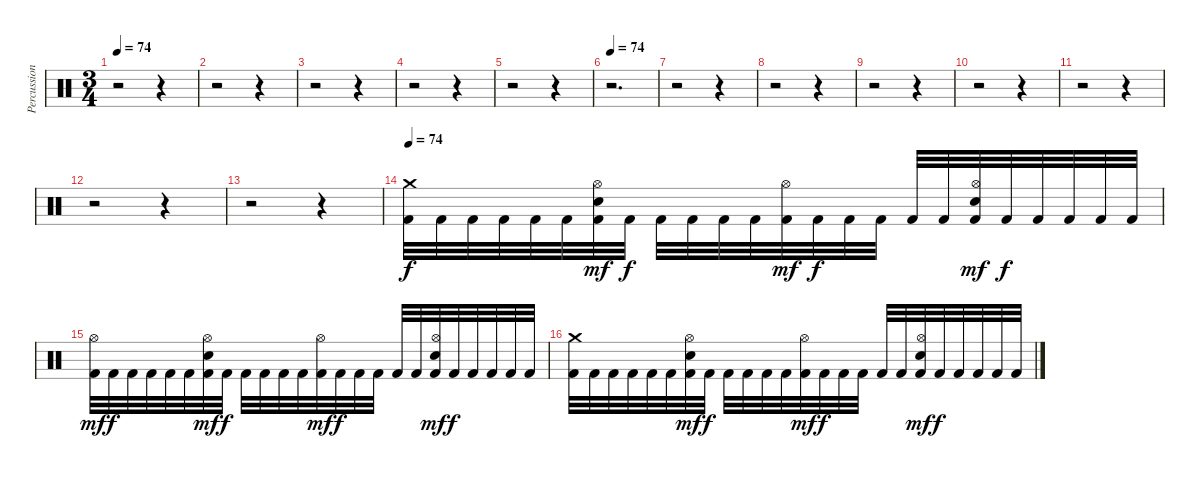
\track ("Percussion" "Percussion") {instrument percussion}
\staff {score}
\articulation defaults
\ts (3 4)
\tempo 74
\clef neutral
\ks c
r.2{dy mf} r.4 |
r.2 r.4 |
r.2 r.4 |
r.2 r.4 |
r.2 r.4 |
\tempo 74
r.2{d} |
r.2 r.4 |
r.2 r.4 |
r.2 r.4 |
r.2 r.4 |
r.2 r.4 |
r.2 r.4 |
r.2 r.4 |
\tempo 74
("Crash medium (hit)" "Kick (hit) 2").32{dy f} "Kick (hit) 2".32 "Kick (hit) 2".32 "Kick (hit) 2".32 "Kick (hit) 2".32 "Kick (hit) 2".32 ("Hi-Hat (open)" "Electric Snare (hit)" "Kick (hit) 2").32{dy mf} "Kick (hit) 2".32{dy f} "Kick (hit) 2".32 "Kick (hit) 2".32 "Kick (hit) 2".32 "Kick (hit) 2".32 ("Hi-Hat (open)" "Kick (hit) 2").32{dy mf} "Kick (hit) 2".32{dy f} "Kick (hit) 2".32 "Kick (hit) 2".32 "Kick (hit) 2".32 "Kick (hit) 2".32 ("Hi-Hat (open)" "Electric Snare (hit)" "Kick (hit) 2").32{dy mf} "Kick (hit) 2".32{dy f} "Kick (hit) 2".32 "Kick (hit) 2".32 "Kick (hit) 2".32 "Kick (hit) 2".32 |
("Hi-Hat (open)" "Kick (hit) 2").32{dy mf} "Kick (hit) 2".32{dy f} "Kick (hit) 2".32 "Kick (hit) 2".32 "Kick (hit) 2".32 "Kick (hit) 2".32 ("Hi-Hat (open)" "Electric Snare (hit)" "Kick (hit) 2").32{dy mf} "Kick (hit) 2".32{dy f} "Kick (hit) 2".32 "Kick (hit) 2".32 "Kick (hit) 2".32 "Kick (hit) 2".32 ("Hi-Hat (open)" "Kick (hit) 2").32{dy mf} "Kick (hit) 2".32{dy f} "Kick (hit) 2".32 "Kick (hit) 2".32 "Kick (hit) 2".32 "Kick (hit) 2".32 ("Hi-Hat (open)" "Electric Snare (hit)" "Kick (hit) 2").32{dy mf} "Kick (hit) 2".32{dy f} "Kick (hit) 2".32 "Kick (hit) 2".32 "Kick (hit) 2".32 "Kick (hit) 2".32 |
("Crash medium (hit)" "Kick (hit) 2").32 "Kick (hit) 2".32 "Kick (hit) 2".32 "Kick (hit) 2".32 "Kick (hit) 2".32 "Kick (hit) 2".32 ("Hi-Hat (open)" "Electric Snare (hit)" "Kick (hit) 2").32{dy mf} "Kick (hit) 2".32{dy f} "Kick (hit) 2".32 "Kick (hit) 2".32 "Kick (hit) 2".32 "Kick (hit) 2".32 ("Hi-Hat (open)" "Kick (hit) 2").32{dy mf} "Kick (hit) 2".32{dy f} "Kick (hit) 2".32 "Kick (hit) 2".32 "Kick (hit) 2".32 "Kick (hit) 2".32 ("Hi-Hat (open)" "Electric Snare (hit)" "Kick (hit) 2").32{dy mf} "Kick (hit) 2".32{dy f} "Kick (hit) 2".32 "Kick (hit) 2".32 "Kick (hit) 2".32 "Kick (hit) 2".32
